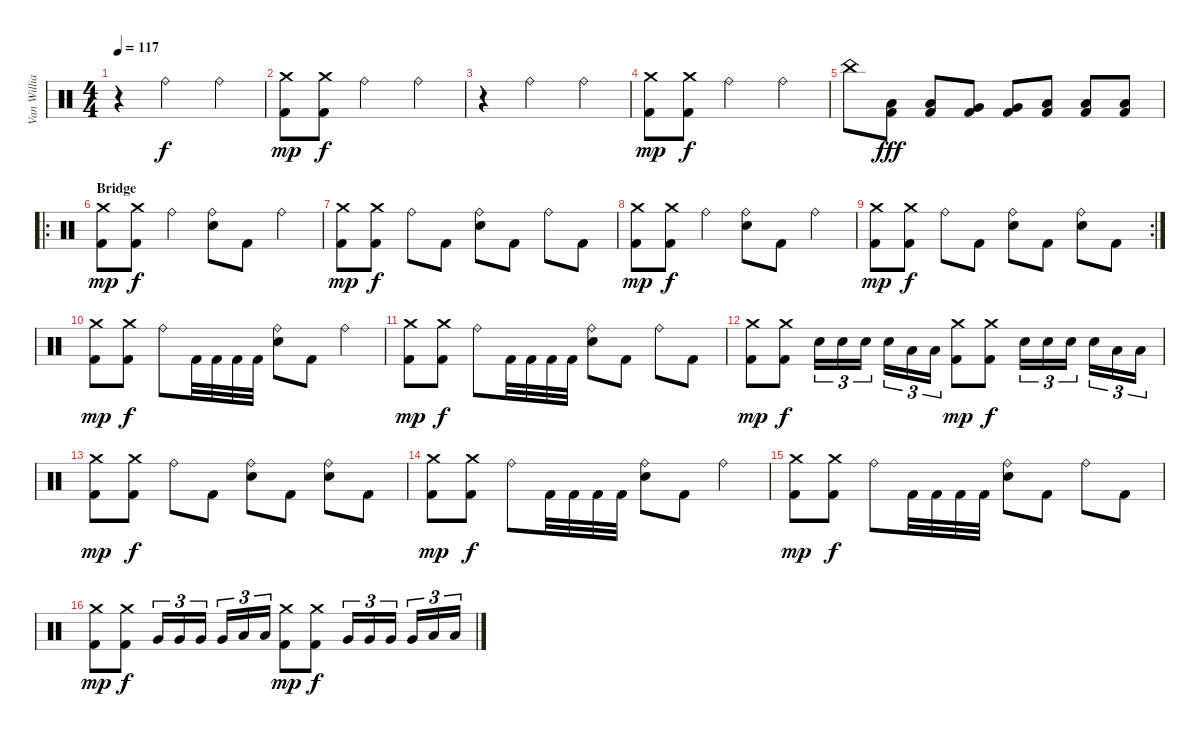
\track ("Van Williams" "Van Willia") {instrument percussion}
\staff {score}
\articulation defaults
\ts (4 4)
\tempo 117
\clef neutral
\ks c
r.4{dy f} "Ride (bell)".2 "Ride (bell)".4 |
("Crash medium (hit)" "Kick (hit) 2").8{dy mp} ("Crash medium (hit)" "Kick (hit) 2").8{dy f} "Ride (bell)".2 "Ride (bell)".4 |
r.4 "Ride (bell)".2 "Ride (bell)".4 |
("Crash medium (hit)" "Kick (hit) 2").8{dy mp} ("Crash medium (hit)" "Kick (hit) 2").8{dy f} "Ride (bell)".2 "Ride (bell)".4 |
"China (hit)".8 ("Low Tom (hit)" "Kick (hit) 2").8{dy fff} ("Low Tom (hit)" "Kick (hit) 2").8 ("Very Low Tom (hit)" "Kick (hit) 2").8 ("Very Low Tom (hit)" "Kick (hit) 2").8 ("Low Floor Tom (hit)" "Kick (hit) 2").8 ("Low Floor Tom (hit)" "Kick (hit) 2").8 ("Low Floor Tom (hit)" "Kick (hit) 2").8 |
\ro
\section ("" "Bridge")
("Crash medium (hit)" "Kick (hit) 2").8{dy mp} ("Crash medium (hit)" "Kick (hit) 2").8{dy f} "Ride (bell)".4 ("Ride (bell)" "Electric Snare (hit)").8 "Kick (hit) 2".8 "Ride (bell)".4 |
("Crash medium (hit)" "Kick (hit) 2").8{dy mp} ("Crash medium (hit)" "Kick (hit) 2").8{dy f} "Ride (bell)".8 "Kick (hit) 2".8 ("Ride (bell)" "Electric Snare (hit)").8 "Kick (hit) 2".8 "Ride (bell)".8 "Kick (hit) 2".8 |
("Crash medium (hit)" "Kick (hit) 2").8{dy mp} ("Crash medium (hit)" "Kick (hit) 2").8{dy f} "Ride (bell)".4 ("Ride (bell)" "Electric Snare (hit)").8 "Kick (hit) 2".8 "Ride (bell)".4 |
\rc 2
("Crash medium (hit)" "Kick (hit) 2").8{dy mp} ("Crash medium (hit)" "Kick (hit) 2").8{dy f} "Ride (bell)".8 "Kick (hit) 2".8 ("Ride (bell)" "Electric Snare (hit)").8 "Kick (hit) 2".8 ("Ride (bell)" "Electric Snare (hit)").8 "Kick (hit) 2".8 |
("Crash medium (hit)" "Kick (hit) 2").8{dy mp} ("Crash medium (hit)" "Kick (hit) 2").8{dy f} "Ride (bell)".8 "Kick (hit) 2".32 "Kick (hit) 2".32 "Kick (hit) 2".32 "Kick (hit) 2".32 ("Ride (bell)" "Electric Snare (hit)").8 "Kick (hit) 2".8 "Ride (bell)".4 |
("Crash medium (hit)" "Kick (hit) 2").8{dy mp} ("Crash medium (hit)" "Kick (hit) 2").8{dy f} "Ride (bell)".8 "Kick (hit) 2".32 "Kick (hit) 2".32 "Kick (hit) 2".32 "Kick (hit) 2".32 ("Ride (bell)" "Electric Snare (hit)").8 "Kick (hit) 2".8 "Ride (bell)".8 "Kick (hit) 2".8 |
("Crash medium (hit)" "Kick (hit) 2").8{dy mp} ("Crash medium (hit)" "Kick (hit) 2").8{dy f} "Electric Snare (hit)".16{tu (3 2)} "Electric Snare (hit)".16{tu (3 2)} "Electric Snare (hit)".16{tu (3 2)} "Electric Snare (hit)".16{tu (3 2)} "Low Floor Tom (hit)".16{tu (3 2)} "Low Floor Tom (hit)".16{tu (3 2)} ("Crash medium (hit)" "Kick (hit) 2").8{dy mp} ("Crash medium (hit)" "Kick (hit) 2").8{dy f} "Electric Snare (hit)".16{tu (3 2)} "Electric Snare (hit)".16{tu (3 2)} "Electric Snare (hit)".16{tu (3 2)} "Electric Snare (hit)".16{tu (3 2)} "Low Floor Tom (hit)".16{tu (3 2)} "Low Floor Tom (hit)".16{tu (3 2)} |
("Crash medium (hit)" "Kick (hit) 2").8{dy mp} ("Crash medium (hit)" "Kick (hit) 2").8{dy f} "Ride (bell)".8 "Kick (hit) 2".8 ("Ride (bell)" "Electric Snare (hit)").8 "Kick (hit) 2".8 ("Ride (bell)" "Electric Snare (hit)").8 "Kick (hit) 2".8 |
("Crash medium (hit)" "Kick (hit) 2").8{dy mp} ("Crash medium (hit)" "Kick (hit) 2").8{dy f} "Ride (bell)".8 "Kick (hit) 2".32 "Kick (hit) 2".32 "Kick (hit) 2".32 "Kick (hit) 2".32 ("Ride (bell)" "Electric Snare (hit)").8 "Kick (hit) 2".8 "Ride (bell)".4 |
("Crash medium (hit)" "Kick (hit) 2").8{dy mp} ("Crash medium (hit)" "Kick (hit) 2").8{dy f} "Ride (bell)".8 "Kick (hit) 2".32 "Kick (hit) 2".32 "Kick (hit) 2".32 "Kick (hit) 2".32 ("Ride (bell)" "Electric Snare (hit)").8 "Kick (hit) 2".8 "Ride (bell)".8 "Kick (hit) 2".8 |
("Crash medium (hit)" "Kick (hit) 2").8{dy mp} ("Crash medium (hit)" "Kick (hit) 2").8{dy f} "Very Low Tom (hit)".16{tu (3 2)} "Very Low Tom (hit)".16{tu (3 2)} "Very Low Tom (hit)".16{tu (3 2)} "Very Low Tom (hit)".16{tu (3 2)} "Low Floor Tom (hit)".16{tu (3 2)} "Low Floor Tom (hit)".16{tu (3 2)} ("Crash medium (hit)" "Kick (hit) 2").8{dy mp} ("Crash medium (hit)" "Kick (hit) 2").8{dy f} "Very Low Tom (hit)".16{tu (3 2)} "Very Low Tom (hit)".16{tu (3 2)} "Very Low Tom (hit)".16{tu (3 2)} "Very Low Tom (hit)".16{tu (3 2)} "Low Floor Tom (hit)".16{tu (3 2)} "Low Floor Tom (hit)".16{tu (3 2)}
